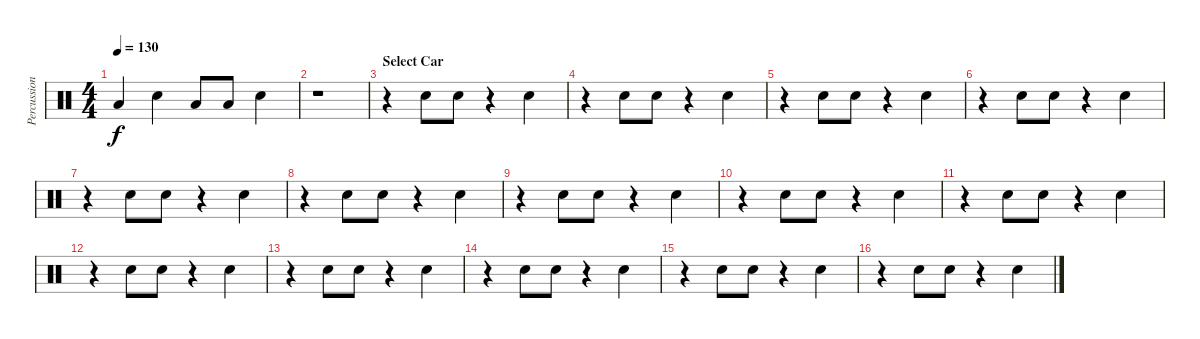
\track ("Percussion" "Percussion") {instrument percussion}
\staff {score}
\articulation defaults
\ts (4 4)
\tempo 130
\clef neutral
\ks c "Low Floor Tom (hit)".4{dy f} "Electric Snare (hit)".4 "Low Floor Tom (hit)".8 "Low Floor Tom (hit)".8 "Electric Snare (hit)".4
|
r.1 |
\section ("" "Select Car")
r.4 "Electric Snare (hit)".8 "Electric Snare (hit)".8 r.4 "Electric Snare (hit)".4 |
r.4 "Electric Snare (hit)".8 "Electric Snare (hit)".8 r.4 "Electric Snare (hit)".4 |
r.4 "Electric Snare (hit)".8 "Electric Snare (hit)".8 r.4 "Electric Snare (hit)".4 |
r.4 "Electric Snare (hit)".8 "Electric Snare (hit)".8 r.4 "Electric Snare (hit)".4 |
r.4 "Electric Snare (hit)".8 "Electric Snare (hit)".8 r.4 "Electric Snare (hit)".4 |
r.4 "Electric Snare (hit)".8 "Electric Snare (hit)".8 r.4 "Electric Snare (hit)".4 |
r.4 "Electric Snare (hit)".8 "Electric Snare (hit)".8 r.4 "Electric Snare (hit)".4 |
r.4 "Electric Snare (hit)".8 "Electric Snare (hit)".8 r.4 "Electric Snare (hit)".4 |
r.4 "Electric Snare (hit)".8 "Electric Snare (hit)".8 r.4 "Electric Snare (hit)".4 |
r.4 "Electric Snare (hit)".8 "Electric Snare (hit)".8 r.4 "Electric Snare (hit)".4 |
r.4 "Electric Snare (hit)".8 "Electric Snare (hit)".8 r.4 "Electric Snare (hit)".4 |
r.4 "Electric Snare (hit)".8 "Electric Snare (hit)".8 r.4 "Electric Snare (hit)".4 |
r.4 "Electric Snare (hit)".8 "Electric Snare (hit)".8 r.4 "Electric Snare (hit)".4 |
r.4 "Electric Snare (hit)".8 "Electric Snare (hit)".8 r.4 "Electric Snare (hit)".4
